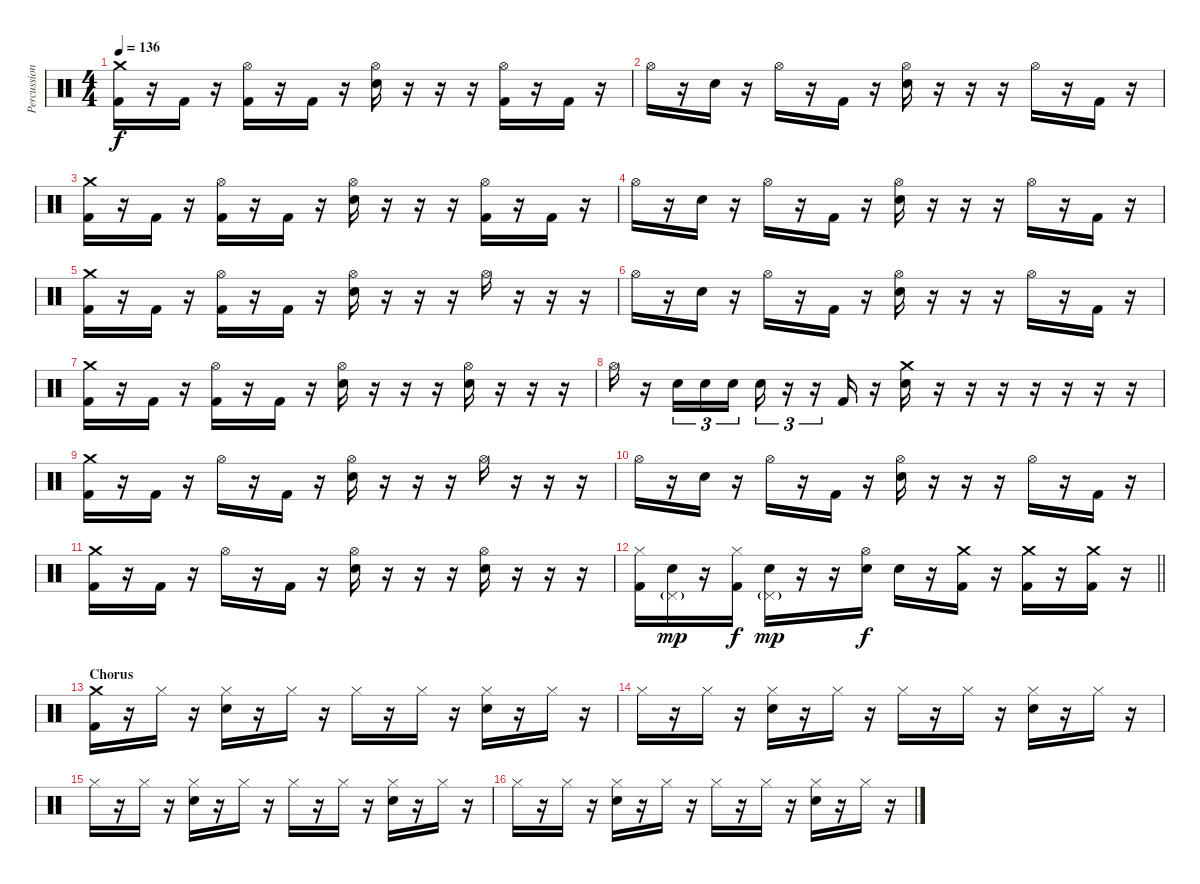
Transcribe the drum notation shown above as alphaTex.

\track ("Percussion" "Percussion") {instrument percussion}
\staff {score}
\articulation defaults
\ts (4 4)
\tempo 136
\clef neutral
\ks c
("Crash medium (hit)" "Kick (hit) 2").16{dy f} r.16 "Kick (hit) 2".16 r.16 ("Hi-Hat (open)" "Kick (hit) 2").16 r.16 "Kick (hit) 2".16 r.16 ("Hi-Hat (open)" "Electric Snare (hit)").16 r.16 r.16 r.16 ("Hi-Hat (open)" "Kick (hit) 2").16 r.16 "Kick (hit) 2".16 r.16 |
"Hi-Hat (open)".16 r.16 "Electric Snare (hit)".16 r.16 "Hi-Hat (open)".16 r.16 "Kick (hit) 2".16 r.16 ("Hi-Hat (open)" "Electric Snare (hit)").16 r.16 r.16 r.16 "Hi-Hat (open)".16 r.16 "Kick (hit) 2".16 r.16 |
("Crash medium (hit)" "Kick (hit) 2").16 r.16 "Kick (hit) 2".16 r.16 ("Hi-Hat (open)" "Kick (hit) 2").16 r.16 "Kick (hit) 2".16 r.16 ("Hi-Hat (open)" "Electric Snare (hit)").16 r.16 r.16 r.16 ("Hi-Hat (open)" "Kick (hit) 2").16 r.16 "Kick (hit) 2".16 r.16 |
"Hi-Hat (open)".16 r.16 "Electric Snare (hit)".16 r.16 "Hi-Hat (open)".16 r.16 "Kick (hit) 2".16 r.16 ("Hi-Hat (open)" "Electric Snare (hit)").16 r.16 r.16 r.16 "Hi-Hat (open)".16 r.16 "Kick (hit) 2".16 r.16 |
("Crash medium (hit)" "Kick (hit) 2").16 r.16 "Kick (hit) 2".16 r.16 ("Hi-Hat (open)" "Kick (hit) 2").16 r.16 "Kick (hit) 2".16 r.16 ("Hi-Hat (open)" "Electric Snare (hit)").16 r.16 r.16 r.16 "Hi-Hat (open)".16 r.16 r.16 r.16 |
"Hi-Hat (open)".16 r.16 "Electric Snare (hit)".16 r.16 "Hi-Hat (open)".16 r.16 "Kick (hit) 2".16 r.16 ("Hi-Hat (open)" "Electric Snare (hit)").16 r.16 r.16 r.16 "Hi-Hat (open)".16 r.16 "Kick (hit) 2".16 r.16 |
("Crash medium (hit)" "Kick (hit) 2").16 r.16 "Kick (hit) 2".16 r.16 ("Hi-Hat (open)" "Kick (hit) 2").16 r.16 "Kick (hit) 2".16 r.16 ("Hi-Hat (open)" "Electric Snare (hit)").16 r.16 r.16 r.16 ("Hi-Hat (open)" "Electric Snare (hit)").16 r.16 r.16 r.16 |
"Hi-Hat (open)".16 r.16 "Electric Snare (hit)".16{tu (3 2)} "Electric Snare (hit)".16{tu (3 2)} "Electric Snare (hit)".16{tu (3 2)} "Electric Snare (hit)".16{tu (3 2)} r.16{tu (3 2)} r.16{tu (3 2)} "Kick (hit) 2".16 r.16 ("Crash medium (hit)" "Electric Snare (hit)").16 r.16 r.16 r.16 r.16 r.16 r.16 r.16 |
("Crash medium (hit)" "Kick (hit) 2").16 r.16 "Kick (hit) 2".16 r.16 "Hi-Hat (open)".16 r.16 "Kick (hit) 2".16 r.16 ("Hi-Hat (open)" "Electric Snare (hit)").16 r.16 r.16 r.16 "Hi-Hat (open)".16 r.16 r.16 r.16 |
"Hi-Hat (open)".16 r.16 "Electric Snare (hit)".16 r.16 "Hi-Hat (open)".16 r.16 "Kick (hit) 2".16 r.16 ("Hi-Hat (open)" "Electric Snare (hit)").16 r.16 r.16 r.16 "Hi-Hat (open)".16 r.16 "Kick (hit) 2".16 r.16 |
("Crash medium (hit)" "Kick (hit) 2").16 r.16 "Kick (hit) 2".16 r.16 "Hi-Hat (open)".16 r.16 "Kick (hit) 2".16 r.16 ("Hi-Hat (open)" "Electric Snare (hit)").16 r.16 r.16 r.16 ("Hi-Hat (open)" "Electric Snare (hit)").16 r.16 r.16 r.16 |
\barLineRight lightlight
("Hi-Hat (closed)" "Kick (hit) 2").16 ("Pedal Hi-Hat (hit)"{g} "Electric Snare (hit)").16{dy mp} r.16 ("Hi-Hat (closed)" "Kick (hit) 2").16{dy f} ("Pedal Hi-Hat (hit)"{g} "Electric Snare (hit)").16{dy mp} r.16 r.16 ("Hi-Hat (open)" "Electric Snare (hit)").16{dy f} "Electric Snare (hit)".16 r.16 ("Crash medium (hit)" "Kick (hit) 2").16 r.16 ("Crash medium (hit)" "Kick (hit) 2").16 r.16 ("Crash medium (hit)" "Kick (hit) 2").16 r.16 |
\section ("" "Chorus")
("Crash medium (hit)" "Kick (hit) 2").16 r.16 "Hi-Hat (closed)".16 r.16 ("Hi-Hat (closed)" "Electric Snare (hit)").16 r.16 "Hi-Hat (closed)".16 r.16 "Hi-Hat (closed)".16 r.16 "Hi-Hat (closed)".16 r.16 ("Hi-Hat (closed)" "Electric Snare (hit)").16 r.16 "Hi-Hat (closed)".16 r.16 |
"Hi-Hat (closed)".16 r.16 "Hi-Hat (closed)".16 r.16 ("Hi-Hat (closed)" "Electric Snare (hit)").16 r.16 "Hi-Hat (closed)".16 r.16 "Hi-Hat (closed)".16 r.16 "Hi-Hat (closed)".16 r.16 ("Hi-Hat (closed)" "Electric Snare (hit)").16 r.16 "Hi-Hat (closed)".16 r.16 |
"Hi-Hat (closed)".16 r.16 "Hi-Hat (closed)".16 r.16 ("Hi-Hat (closed)" "Electric Snare (hit)").16 r.16 "Hi-Hat (closed)".16 r.16 "Hi-Hat (closed)".16 r.16 "Hi-Hat (closed)".16 r.16 ("Hi-Hat (closed)" "Electric Snare (hit)").16 r.16 "Hi-Hat (closed)".16 r.16 |
"Hi-Hat (closed)".16 r.16 "Hi-Hat (closed)".16 r.16 ("Hi-Hat (closed)" "Electric Snare (hit)").16 r.16 "Hi-Hat (closed)".16 r.16 "Hi-Hat (closed)".16 r.16 "Hi-Hat (closed)".16 r.16 ("Hi-Hat (closed)" "Electric Snare (hit)").16 r.16 "Hi-Hat (closed)".16 r.16
